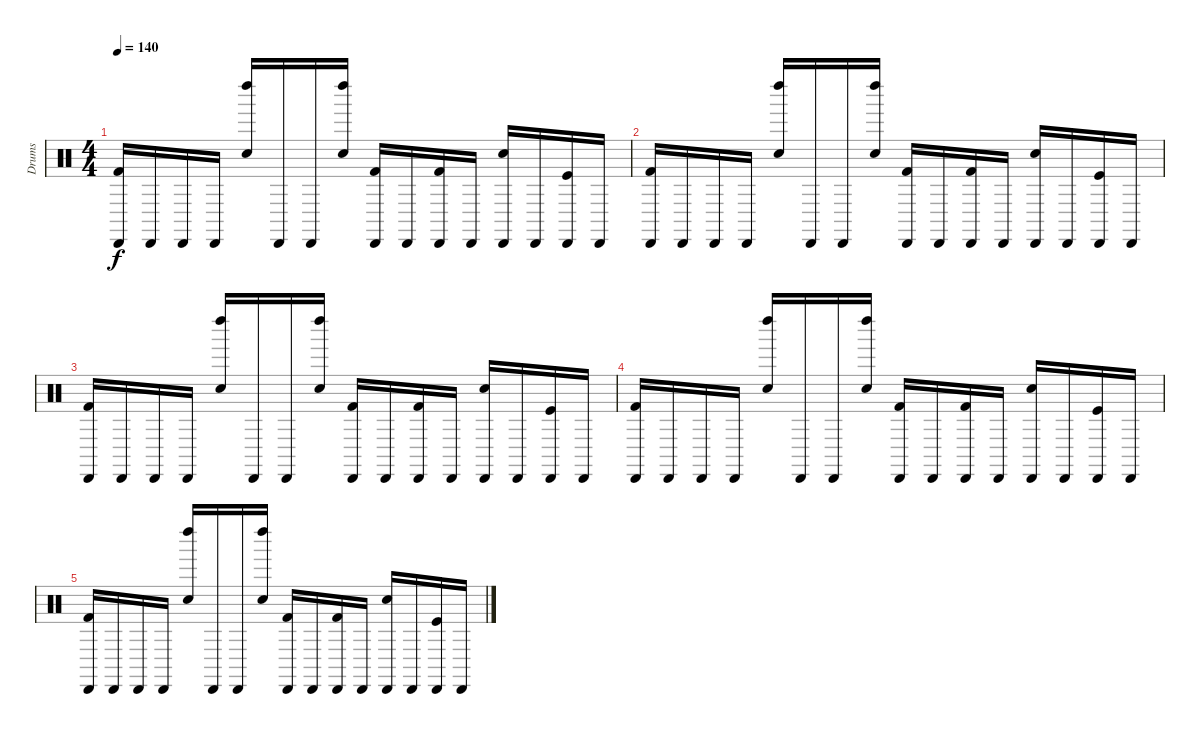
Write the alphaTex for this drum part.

\track ("Drums" "Drums") {instrument percussion}
\staff {score}
\articulation defaults
\ts (4 4)
\tempo 140
\clef neutral
\ks c
("Cabasa (hit)" "Kick (hit) 2").16{dy f} "Cabasa (hit)".16 "Cabasa (hit)".16 "Cabasa (hit)".16 ("Left Maraca (hit)" "Electric Snare (hit)").16 "Cabasa (hit)".16 "Cabasa (hit)".16 ("Left Maraca (hit)" "Electric Snare (hit)").16 ("Cabasa (hit)" "Kick (hit) 2").16 "Cabasa (hit)".16 ("Cabasa (hit)" "Kick (hit) 2").16 "Cabasa (hit)".16 ("Cabasa (hit)" "Electric Snare (hit)").16 "Cabasa (hit)".16 ("Cabasa (hit)" "Kick (hit)").16 "Cabasa (hit)".16 |
("Cabasa (hit)" "Kick (hit) 2").16 "Cabasa (hit)".16 "Cabasa (hit)".16 "Cabasa (hit)".16 ("Left Maraca (hit)" "Electric Snare (hit)").16 "Cabasa (hit)".16 "Cabasa (hit)".16 ("Left Maraca (hit)" "Electric Snare (hit)").16 ("Cabasa (hit)" "Kick (hit) 2").16 "Cabasa (hit)".16 ("Cabasa (hit)" "Kick (hit) 2").16 "Cabasa (hit)".16 ("Cabasa (hit)" "Electric Snare (hit)").16 "Cabasa (hit)".16 ("Cabasa (hit)" "Kick (hit)").16 "Cabasa (hit)".16 |
("Cabasa (hit)" "Kick (hit) 2").16 "Cabasa (hit)".16 "Cabasa (hit)".16 "Cabasa (hit)".16 ("Left Maraca (hit)" "Electric Snare (hit)").16 "Cabasa (hit)".16 "Cabasa (hit)".16 ("Left Maraca (hit)" "Electric Snare (hit)").16 ("Cabasa (hit)" "Kick (hit) 2").16 "Cabasa (hit)".16 ("Cabasa (hit)" "Kick (hit) 2").16 "Cabasa (hit)".16 ("Cabasa (hit)" "Electric Snare (hit)").16 "Cabasa (hit)".16 ("Cabasa (hit)" "Kick (hit)").16 "Cabasa (hit)".16 |
("Cabasa (hit)" "Kick (hit) 2").16 "Cabasa (hit)".16 "Cabasa (hit)".16 "Cabasa (hit)".16 ("Left Maraca (hit)" "Electric Snare (hit)").16 "Cabasa (hit)".16 "Cabasa (hit)".16 ("Left Maraca (hit)" "Electric Snare (hit)").16 ("Cabasa (hit)" "Kick (hit) 2").16 "Cabasa (hit)".16 ("Cabasa (hit)" "Kick (hit) 2").16 "Cabasa (hit)".16 ("Cabasa (hit)" "Electric Snare (hit)").16 "Cabasa (hit)".16 ("Cabasa (hit)" "Kick (hit)").16 "Cabasa (hit)".16 |
("Cabasa (hit)" "Kick (hit) 2").16 "Cabasa (hit)".16 "Cabasa (hit)".16 "Cabasa (hit)".16 ("Left Maraca (hit)" "Electric Snare (hit)").16 "Cabasa (hit)".16 "Cabasa (hit)".16 ("Left Maraca (hit)" "Electric Snare (hit)").16 ("Cabasa (hit)" "Kick (hit) 2").16 "Cabasa (hit)".16 ("Cabasa (hit)" "Kick (hit) 2").16 "Cabasa (hit)".16 ("Cabasa (hit)" "Electric Snare (hit)").16 "Cabasa (hit)".16 ("Cabasa (hit)" "Kick (hit)").16 "Cabasa (hit)".16
